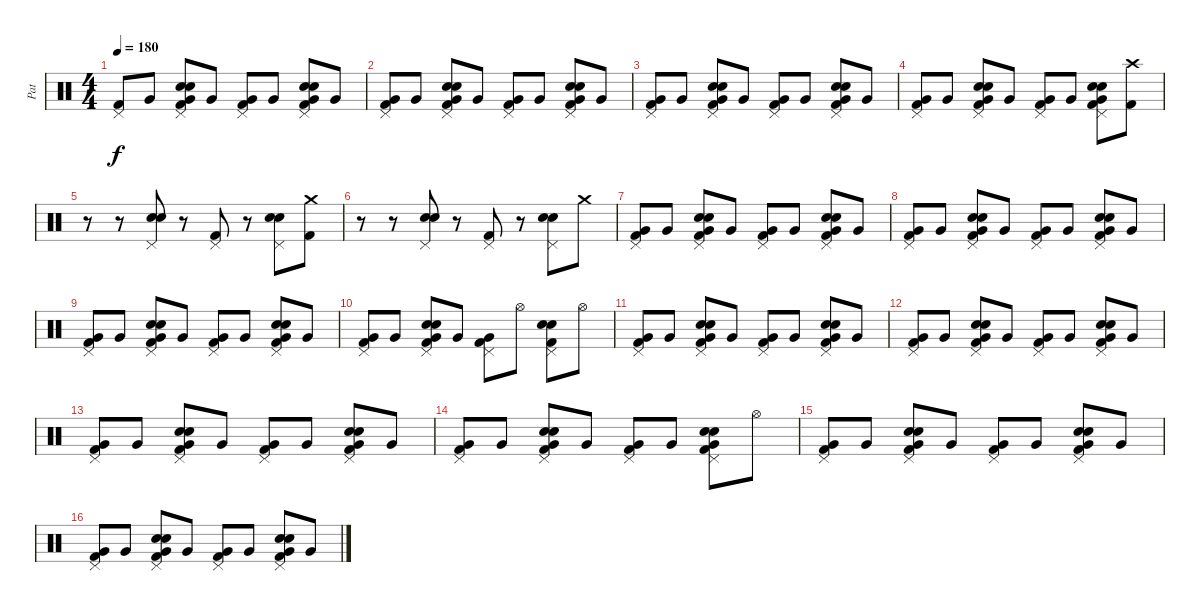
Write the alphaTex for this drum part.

\track ("Pat" "Pat") {instrument percussion}
\staff {score}
\articulation defaults
\ts (4 4)
\tempo 180
\clef neutral
\ks c
("Pedal Hi-Hat (hit)" "Kick (hit) 2").8{dy f} "Very Low Tom (hit)".8 ("Pedal Hi-Hat (hit)" "Very Low Tom (hit)" "Snare (hit) 2" "Electric Snare (hit)" "Kick (hit) 2").8 "Very Low Tom (hit)".8 ("Pedal Hi-Hat (hit)" "Very Low Tom (hit)" "Kick (hit) 2").8 "Very Low Tom (hit)".8 ("Pedal Hi-Hat (hit)" "Very Low Tom (hit)" "Snare (hit) 2" "Electric Snare (hit)" "Kick (hit) 2").8 "Very Low Tom (hit)".8 |
("Pedal Hi-Hat (hit)" "Very Low Tom (hit)" "Kick (hit) 2").8 "Very Low Tom (hit)".8 ("Pedal Hi-Hat (hit)" "Very Low Tom (hit)" "Snare (hit) 2" "Electric Snare (hit)" "Kick (hit) 2").8 "Very Low Tom (hit)".8 ("Pedal Hi-Hat (hit)" "Very Low Tom (hit)" "Kick (hit) 2").8 "Very Low Tom (hit)".8 ("Pedal Hi-Hat (hit)" "Very Low Tom (hit)" "Snare (hit) 2" "Electric Snare (hit)" "Kick (hit) 2").8 "Very Low Tom (hit)".8 |
("Pedal Hi-Hat (hit)" "Very Low Tom (hit)" "Kick (hit) 2").8 "Very Low Tom (hit)".8 ("Pedal Hi-Hat (hit)" "Very Low Tom (hit)" "Snare (hit) 2" "Electric Snare (hit)" "Kick (hit) 2").8 "Very Low Tom (hit)".8 ("Pedal Hi-Hat (hit)" "Very Low Tom (hit)" "Kick (hit) 2").8 "Very Low Tom (hit)".8 ("Pedal Hi-Hat (hit)" "Very Low Tom (hit)" "Snare (hit) 2" "Electric Snare (hit)" "Kick (hit) 2").8 "Very Low Tom (hit)".8 |
("Pedal Hi-Hat (hit)" "Very Low Tom (hit)" "Kick (hit) 2").8 "Very Low Tom (hit)".8 ("Pedal Hi-Hat (hit)" "Very Low Tom (hit)" "Snare (hit) 2" "Electric Snare (hit)" "Kick (hit) 2").8 "Very Low Tom (hit)".8 ("Pedal Hi-Hat (hit)" "Very Low Tom (hit)" "Kick (hit) 2").8 "Very Low Tom (hit)".8 ("Pedal Hi-Hat (hit)" "Very Low Tom (hit)" "Snare (hit) 2" "Electric Snare (hit)" "Kick (hit) 2").8 ("Crash high (hit)" "Kick (hit) 2").8 |
r.8 r.8 ("Pedal Hi-Hat (hit)" "Snare (hit) 2" "Electric Snare (hit)").8 r.8 ("Pedal Hi-Hat (hit)" "Kick (hit) 2").8 r.8 ("Pedal Hi-Hat (hit)" "Snare (hit) 2" "Electric Snare (hit)").8 ("Crash medium (hit)" "Kick (hit) 2").8 |
r.8 r.8 ("Pedal Hi-Hat (hit)" "Snare (hit) 2" "Electric Snare (hit)").8 r.8 ("Pedal Hi-Hat (hit)" "Kick (hit) 2").8 r.8 ("Pedal Hi-Hat (hit)" "Snare (hit) 2" "Electric Snare (hit)").8 "Crash medium (hit)".8 |
("Pedal Hi-Hat (hit)" "Very Low Tom (hit)" "Kick (hit) 2").8 "Very Low Tom (hit)".8 ("Pedal Hi-Hat (hit)" "Very Low Tom (hit)" "Snare (hit) 2" "Electric Snare (hit)" "Kick (hit) 2").8 "Very Low Tom (hit)".8 ("Pedal Hi-Hat (hit)" "Very Low Tom (hit)" "Kick (hit) 2").8 "Very Low Tom (hit)".8 ("Pedal Hi-Hat (hit)" "Very Low Tom (hit)" "Snare (hit) 2" "Electric Snare (hit)" "Kick (hit) 2").8 "Very Low Tom (hit)".8 |
("Pedal Hi-Hat (hit)" "Very Low Tom (hit)" "Kick (hit) 2").8 "Very Low Tom (hit)".8 ("Pedal Hi-Hat (hit)" "Very Low Tom (hit)" "Snare (hit) 2" "Electric Snare (hit)" "Kick (hit) 2").8 "Very Low Tom (hit)".8 ("Pedal Hi-Hat (hit)" "Very Low Tom (hit)" "Kick (hit) 2").8 "Very Low Tom (hit)".8 ("Pedal Hi-Hat (hit)" "Very Low Tom (hit)" "Snare (hit) 2" "Electric Snare (hit)" "Kick (hit) 2").8 "Very Low Tom (hit)".8 |
("Pedal Hi-Hat (hit)" "Very Low Tom (hit)" "Kick (hit) 2").8 "Very Low Tom (hit)".8 ("Pedal Hi-Hat (hit)" "Very Low Tom (hit)" "Snare (hit) 2" "Electric Snare (hit)" "Kick (hit) 2").8 "Very Low Tom (hit)".8 ("Pedal Hi-Hat (hit)" "Very Low Tom (hit)" "Kick (hit) 2").8 "Very Low Tom (hit)".8 ("Pedal Hi-Hat (hit)" "Very Low Tom (hit)" "Snare (hit) 2" "Electric Snare (hit)" "Kick (hit) 2").8 "Very Low Tom (hit)".8 |
("Pedal Hi-Hat (hit)" "Very Low Tom (hit)" "Kick (hit) 2").8 "Very Low Tom (hit)".8 ("Pedal Hi-Hat (hit)" "Very Low Tom (hit)" "Snare (hit) 2" "Electric Snare (hit)" "Kick (hit) 2").8 "Very Low Tom (hit)".8 ("Pedal Hi-Hat (hit)" "Very Low Tom (hit)" "Kick (hit) 2").8 "Hi-Hat (open)".8 ("Pedal Hi-Hat (hit)" "Snare (hit) 2" "Electric Snare (hit)" "Kick (hit) 2").8 "Hi-Hat (open)".8 |
("Pedal Hi-Hat (hit)" "Very Low Tom (hit)" "Kick (hit) 2").8 "Very Low Tom (hit)".8 ("Pedal Hi-Hat (hit)" "Very Low Tom (hit)" "Snare (hit) 2" "Electric Snare (hit)" "Kick (hit) 2").8 "Very Low Tom (hit)".8 ("Pedal Hi-Hat (hit)" "Very Low Tom (hit)" "Kick (hit) 2").8 "Very Low Tom (hit)".8 ("Pedal Hi-Hat (hit)" "Very Low Tom (hit)" "Snare (hit) 2" "Electric Snare (hit)" "Kick (hit) 2").8 "Very Low Tom (hit)".8 |
("Pedal Hi-Hat (hit)" "Very Low Tom (hit)" "Kick (hit) 2").8 "Very Low Tom (hit)".8 ("Pedal Hi-Hat (hit)" "Very Low Tom (hit)" "Snare (hit) 2" "Electric Snare (hit)" "Kick (hit) 2").8 "Very Low Tom (hit)".8 ("Pedal Hi-Hat (hit)" "Very Low Tom (hit)" "Kick (hit) 2").8 "Very Low Tom (hit)".8 ("Pedal Hi-Hat (hit)" "Very Low Tom (hit)" "Snare (hit) 2" "Electric Snare (hit)" "Kick (hit) 2").8 "Very Low Tom (hit)".8 |
("Pedal Hi-Hat (hit)" "Very Low Tom (hit)" "Kick (hit) 2").8 "Very Low Tom (hit)".8 ("Pedal Hi-Hat (hit)" "Very Low Tom (hit)" "Snare (hit) 2" "Electric Snare (hit)" "Kick (hit) 2").8 "Very Low Tom (hit)".8 ("Pedal Hi-Hat (hit)" "Very Low Tom (hit)" "Kick (hit) 2").8 "Very Low Tom (hit)".8 ("Pedal Hi-Hat (hit)" "Very Low Tom (hit)" "Snare (hit) 2" "Electric Snare (hit)" "Kick (hit) 2").8 "Very Low Tom (hit)".8 |
("Pedal Hi-Hat (hit)" "Very Low Tom (hit)" "Kick (hit) 2").8 "Very Low Tom (hit)".8 ("Pedal Hi-Hat (hit)" "Very Low Tom (hit)" "Snare (hit) 2" "Electric Snare (hit)" "Kick (hit) 2").8 "Very Low Tom (hit)".8 ("Pedal Hi-Hat (hit)" "Very Low Tom (hit)" "Kick (hit) 2").8 "Very Low Tom (hit)".8 ("Pedal Hi-Hat (hit)" "Very Low Tom (hit)" "Snare (hit) 2" "Electric Snare (hit)" "Kick (hit) 2").8 "Hi-Hat (open)".8 |
("Pedal Hi-Hat (hit)" "Very Low Tom (hit)" "Kick (hit) 2").8 "Very Low Tom (hit)".8 ("Pedal Hi-Hat (hit)" "Very Low Tom (hit)" "Snare (hit) 2" "Electric Snare (hit)" "Kick (hit) 2").8 "Very Low Tom (hit)".8 ("Pedal Hi-Hat (hit)" "Very Low Tom (hit)" "Kick (hit) 2").8 "Very Low Tom (hit)".8 ("Pedal Hi-Hat (hit)" "Very Low Tom (hit)" "Snare (hit) 2" "Electric Snare (hit)" "Kick (hit) 2").8 "Very Low Tom (hit)".8 |
("Pedal Hi-Hat (hit)" "Very Low Tom (hit)" "Kick (hit) 2").8 "Very Low Tom (hit)".8 ("Pedal Hi-Hat (hit)" "Very Low Tom (hit)" "Snare (hit) 2" "Electric Snare (hit)" "Kick (hit) 2").8 "Very Low Tom (hit)".8 ("Pedal Hi-Hat (hit)" "Very Low Tom (hit)" "Kick (hit) 2").8 "Very Low Tom (hit)".8 ("Pedal Hi-Hat (hit)" "Very Low Tom (hit)" "Snare (hit) 2" "Electric Snare (hit)" "Kick (hit) 2").8 "Very Low Tom (hit)".8
